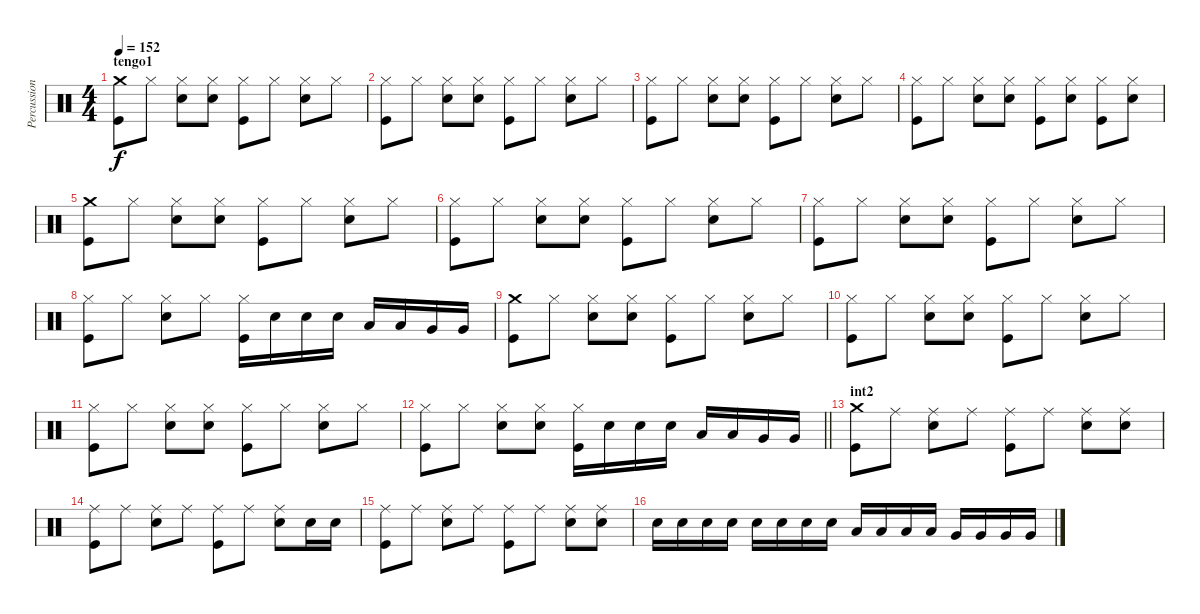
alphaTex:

\track ("Percussion" "Percussion") {instrument percussion}
\staff {score}
\articulation defaults
\ts (4 4)
\section ("" "tengo1")
\tempo 152
\clef neutral
\ks c
("Crash medium (hit)" "Kick (hit)").8{dy f} "Hi-Hat (closed)".8 ("Hi-Hat (closed)" "Snare (hit) 2").8 ("Hi-Hat (closed)" "Snare (hit) 2").8 ("Hi-Hat (closed)" "Kick (hit)").8 "Hi-Hat (closed)".8 ("Hi-Hat (closed)" "Snare (hit) 2").8 "Hi-Hat (closed)".8 |
("Hi-Hat (closed)" "Kick (hit)").8 "Hi-Hat (closed)".8 ("Hi-Hat (closed)" "Snare (hit) 2").8 ("Hi-Hat (closed)" "Snare (hit) 2").8 ("Hi-Hat (closed)" "Kick (hit)").8 "Hi-Hat (closed)".8 ("Hi-Hat (closed)" "Snare (hit) 2").8 "Hi-Hat (closed)".8 |
("Hi-Hat (closed)" "Kick (hit)").8 "Hi-Hat (closed)".8 ("Hi-Hat (closed)" "Snare (hit) 2").8 ("Hi-Hat (closed)" "Snare (hit) 2").8 ("Hi-Hat (closed)" "Kick (hit)").8 "Hi-Hat (closed)".8 ("Hi-Hat (closed)" "Snare (hit) 2").8 "Hi-Hat (closed)".8 |
("Hi-Hat (closed)" "Kick (hit)").8 "Hi-Hat (closed)".8 ("Hi-Hat (closed)" "Snare (hit) 2").8 ("Hi-Hat (closed)" "Snare (hit) 2").8 ("Hi-Hat (closed)" "Kick (hit)").8 ("Hi-Hat (closed)" "Snare (hit) 2").8 ("Hi-Hat (closed)" "Kick (hit)").8 ("Hi-Hat (closed)" "Snare (hit) 2").8 |
("Crash medium (hit)" "Kick (hit)").8 "Hi-Hat (closed)".8 ("Hi-Hat (closed)" "Snare (hit) 2").8 ("Hi-Hat (closed)" "Snare (hit) 2").8 ("Hi-Hat (closed)" "Kick (hit)").8 "Hi-Hat (closed)".8 ("Hi-Hat (closed)" "Snare (hit) 2").8 "Hi-Hat (closed)".8 |
("Hi-Hat (closed)" "Kick (hit)").8 "Hi-Hat (closed)".8 ("Hi-Hat (closed)" "Snare (hit) 2").8 ("Hi-Hat (closed)" "Snare (hit) 2").8 ("Hi-Hat (closed)" "Kick (hit)").8 "Hi-Hat (closed)".8 ("Hi-Hat (closed)" "Snare (hit) 2").8 "Hi-Hat (closed)".8 |
("Hi-Hat (closed)" "Kick (hit)").8 "Hi-Hat (closed)".8 ("Hi-Hat (closed)" "Snare (hit) 2").8 ("Hi-Hat (closed)" "Snare (hit) 2").8 ("Hi-Hat (closed)" "Kick (hit)").8 "Hi-Hat (closed)".8 ("Hi-Hat (closed)" "Snare (hit) 2").8 "Hi-Hat (closed)".8 |
("Hi-Hat (closed)" "Kick (hit)").8 "Hi-Hat (closed)".8 ("Hi-Hat (closed)" "Snare (hit) 2").8 "Hi-Hat (closed)".8 ("Hi-Hat (closed)" "Kick (hit)").16 "Snare (hit) 2".16 "Snare (hit) 2".16 "Snare (hit) 2".16 "Low Tom (hit)".16 "Low Tom (hit)".16 "Very Low Tom (hit)".16 "Very Low Tom (hit)".16 |
("Crash medium (hit)" "Kick (hit)").8 "Hi-Hat (closed)".8 ("Hi-Hat (closed)" "Snare (hit) 2").8 ("Hi-Hat (closed)" "Snare (hit) 2").8 ("Hi-Hat (closed)" "Kick (hit)").8 "Hi-Hat (closed)".8 ("Hi-Hat (closed)" "Snare (hit) 2").8 "Hi-Hat (closed)".8 |
("Hi-Hat (closed)" "Kick (hit)").8 "Hi-Hat (closed)".8 ("Hi-Hat (closed)" "Snare (hit) 2").8 ("Hi-Hat (closed)" "Snare (hit) 2").8 ("Hi-Hat (closed)" "Kick (hit)").8 "Hi-Hat (closed)".8 ("Hi-Hat (closed)" "Snare (hit) 2").8 "Hi-Hat (closed)".8 |
("Hi-Hat (closed)" "Kick (hit)").8 "Hi-Hat (closed)".8 ("Hi-Hat (closed)" "Snare (hit) 2").8 ("Hi-Hat (closed)" "Snare (hit) 2").8 ("Hi-Hat (closed)" "Kick (hit)").8 "Hi-Hat (closed)".8 ("Hi-Hat (closed)" "Snare (hit) 2").8 "Hi-Hat (closed)".8 |
\barLineRight lightlight
("Hi-Hat (closed)" "Kick (hit)").8 "Hi-Hat (closed)".8 ("Hi-Hat (closed)" "Snare (hit) 2").8 ("Hi-Hat (closed)" "Snare (hit) 2").8 ("Hi-Hat (closed)" "Kick (hit)").16 "Snare (hit) 2".16 "Snare (hit) 2".16 "Snare (hit) 2".16 "Low Tom (hit)".16 "Low Tom (hit)".16 "Very Low Tom (hit)".16 "Very Low Tom (hit)".16 |
\section ("" "int2")
("Crash medium (hit)" "Kick (hit)").8 "Ride (middle)".8 ("Ride (middle)" "Snare (hit) 2").8 "Ride (middle)".8 ("Ride (middle)" "Kick (hit)").8 "Ride (middle)".8 ("Ride (middle)" "Snare (hit) 2").8 ("Ride (middle)" "Snare (hit) 2").8 |
("Ride (middle)" "Kick (hit)").8 "Ride (middle)".8 ("Ride (middle)" "Snare (hit) 2").8 "Ride (middle)".8 ("Ride (middle)" "Kick (hit)").8 "Ride (middle)".8 ("Ride (middle)" "Snare (hit) 2").8 "Snare (hit) 2".16 "Snare (hit) 2".16 |
("Ride (middle)" "Kick (hit)").8 "Ride (middle)".8 ("Ride (middle)" "Snare (hit) 2").8 "Ride (middle)".8 ("Ride (middle)" "Kick (hit)").8 "Ride (middle)".8 ("Ride (middle)" "Snare (hit) 2").8 ("Ride (middle)" "Snare (hit) 2").8 |
"Snare (hit) 2".16 "Snare (hit) 2".16 "Snare (hit) 2".16 "Snare (hit) 2".16 "Snare (hit) 2".16 "Snare (hit) 2".16 "Snare (hit) 2".16 "Snare (hit) 2".16 "Low Tom (hit)".16 "Low Tom (hit)".16 "Low Tom (hit)".16 "Low Tom (hit)".16 "Very Low Tom (hit)".16 "Very Low Tom (hit)".16 "Very Low Tom (hit)".16 "Very Low Tom (hit)".16
